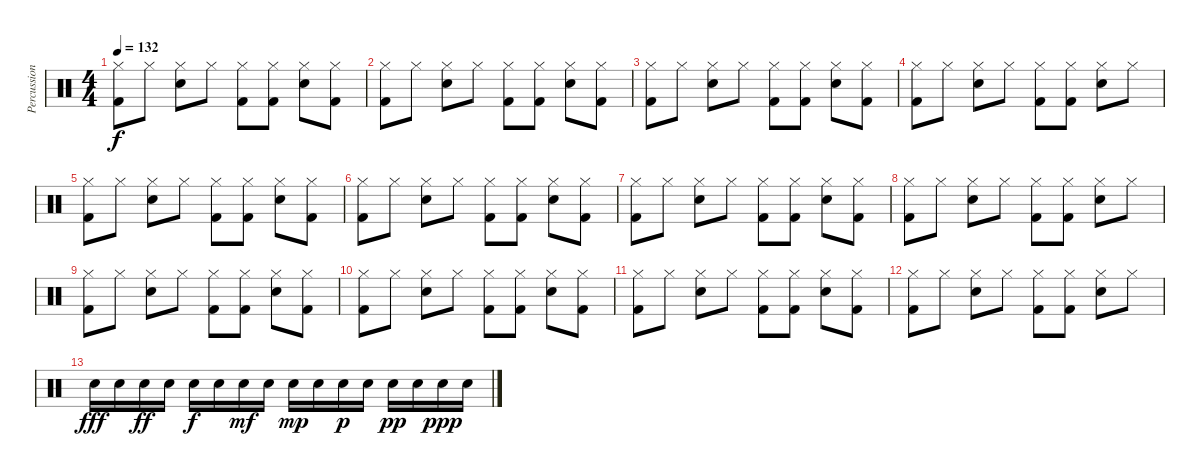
\track ("Percussion" "Percussion") {instrument percussion}
\staff {score}
\articulation defaults
\ts (4 4)
\tempo 132
\clef neutral
\ks c
("Kick (hit) 2" "Hi-Hat (closed)").8{dy f} "Hi-Hat (closed)".8 ("Electric Snare (hit)" "Hi-Hat (closed)").8 "Hi-Hat (closed)".8 ("Kick (hit) 2" "Hi-Hat (closed)").8 ("Kick (hit) 2" "Hi-Hat (closed)").8 ("Electric Snare (hit)" "Hi-Hat (closed)").8 ("Kick (hit) 2" "Hi-Hat (closed)").8 |
("Kick (hit) 2" "Hi-Hat (closed)").8 "Hi-Hat (closed)".8 ("Electric Snare (hit)" "Hi-Hat (closed)").8 "Hi-Hat (closed)".8 ("Kick (hit) 2" "Hi-Hat (closed)").8 ("Kick (hit) 2" "Hi-Hat (closed)").8 ("Electric Snare (hit)" "Hi-Hat (closed)").8 ("Kick (hit) 2" "Hi-Hat (closed)").8 |
("Kick (hit) 2" "Hi-Hat (closed)").8 "Hi-Hat (closed)".8 ("Electric Snare (hit)" "Hi-Hat (closed)").8 "Hi-Hat (closed)".8 ("Kick (hit) 2" "Hi-Hat (closed)").8 ("Kick (hit) 2" "Hi-Hat (closed)").8 ("Electric Snare (hit)" "Hi-Hat (closed)").8 ("Kick (hit) 2" "Hi-Hat (closed)").8 |
("Kick (hit) 2" "Hi-Hat (closed)").8 "Hi-Hat (closed)".8 ("Electric Snare (hit)" "Hi-Hat (closed)").8 "Hi-Hat (closed)".8 ("Kick (hit) 2" "Hi-Hat (closed)").8 ("Kick (hit) 2" "Hi-Hat (closed)").8 ("Electric Snare (hit)" "Hi-Hat (closed)").8 "Hi-Hat (closed)".8 |
("Kick (hit) 2" "Hi-Hat (closed)").8 "Hi-Hat (closed)".8 ("Electric Snare (hit)" "Hi-Hat (closed)").8 "Hi-Hat (closed)".8 ("Kick (hit) 2" "Hi-Hat (closed)").8 ("Kick (hit) 2" "Hi-Hat (closed)").8 ("Electric Snare (hit)" "Hi-Hat (closed)").8 ("Kick (hit) 2" "Hi-Hat (closed)").8 |
("Kick (hit) 2" "Hi-Hat (closed)").8 "Hi-Hat (closed)".8 ("Electric Snare (hit)" "Hi-Hat (closed)").8 "Hi-Hat (closed)".8 ("Kick (hit) 2" "Hi-Hat (closed)").8 ("Kick (hit) 2" "Hi-Hat (closed)").8 ("Electric Snare (hit)" "Hi-Hat (closed)").8 ("Kick (hit) 2" "Hi-Hat (closed)").8 |
("Kick (hit) 2" "Hi-Hat (closed)").8 "Hi-Hat (closed)".8 ("Electric Snare (hit)" "Hi-Hat (closed)").8 "Hi-Hat (closed)".8 ("Kick (hit) 2" "Hi-Hat (closed)").8 ("Kick (hit) 2" "Hi-Hat (closed)").8 ("Electric Snare (hit)" "Hi-Hat (closed)").8 ("Kick (hit) 2" "Hi-Hat (closed)").8 |
("Kick (hit) 2" "Hi-Hat (closed)").8 "Hi-Hat (closed)".8 ("Electric Snare (hit)" "Hi-Hat (closed)").8 "Hi-Hat (closed)".8 ("Kick (hit) 2" "Hi-Hat (closed)").8 ("Kick (hit) 2" "Hi-Hat (closed)").8 ("Electric Snare (hit)" "Hi-Hat (closed)").8 "Hi-Hat (closed)".8 |
("Kick (hit) 2" "Hi-Hat (closed)").8 "Hi-Hat (closed)".8 ("Electric Snare (hit)" "Hi-Hat (closed)").8 "Hi-Hat (closed)".8 ("Kick (hit) 2" "Hi-Hat (closed)").8 ("Kick (hit) 2" "Hi-Hat (closed)").8 ("Electric Snare (hit)" "Hi-Hat (closed)").8 ("Kick (hit) 2" "Hi-Hat (closed)").8 |
("Kick (hit) 2" "Hi-Hat (closed)").8 "Hi-Hat (closed)".8 ("Electric Snare (hit)" "Hi-Hat (closed)").8 "Hi-Hat (closed)".8 ("Kick (hit) 2" "Hi-Hat (closed)").8 ("Kick (hit) 2" "Hi-Hat (closed)").8 ("Electric Snare (hit)" "Hi-Hat (closed)").8 ("Kick (hit) 2" "Hi-Hat (closed)").8 |
("Kick (hit) 2" "Hi-Hat (closed)").8 "Hi-Hat (closed)".8 ("Electric Snare (hit)" "Hi-Hat (closed)").8 "Hi-Hat (closed)".8 ("Kick (hit) 2" "Hi-Hat (closed)").8 ("Kick (hit) 2" "Hi-Hat (closed)").8 ("Electric Snare (hit)" "Hi-Hat (closed)").8 ("Kick (hit) 2" "Hi-Hat (closed)").8 |
("Kick (hit) 2" "Hi-Hat (closed)").8 "Hi-Hat (closed)".8 ("Electric Snare (hit)" "Hi-Hat (closed)").8 "Hi-Hat (closed)".8 ("Kick (hit) 2" "Hi-Hat (closed)").8 ("Kick (hit) 2" "Hi-Hat (closed)").8 ("Electric Snare (hit)" "Hi-Hat (closed)").8 "Hi-Hat (closed)".8 |
"Snare (hit) 2".16{dy fff} "Snare (hit) 2".16 "Snare (hit) 2".16{dy ff} "Snare (hit) 2".16 "Snare (hit) 2".16{dy f} "Snare (hit) 2".16 "Snare (hit) 2".16{dy mf} "Snare (hit) 2".16 "Snare (hit) 2".16{dy mp} "Snare (hit) 2".16 "Snare (hit) 2".16{dy p} "Snare (hit) 2".16 "Snare (hit) 2".16{dy pp} "Snare (hit) 2".16 "Snare (hit) 2".16{dy ppp} "Snare (hit) 2".16
